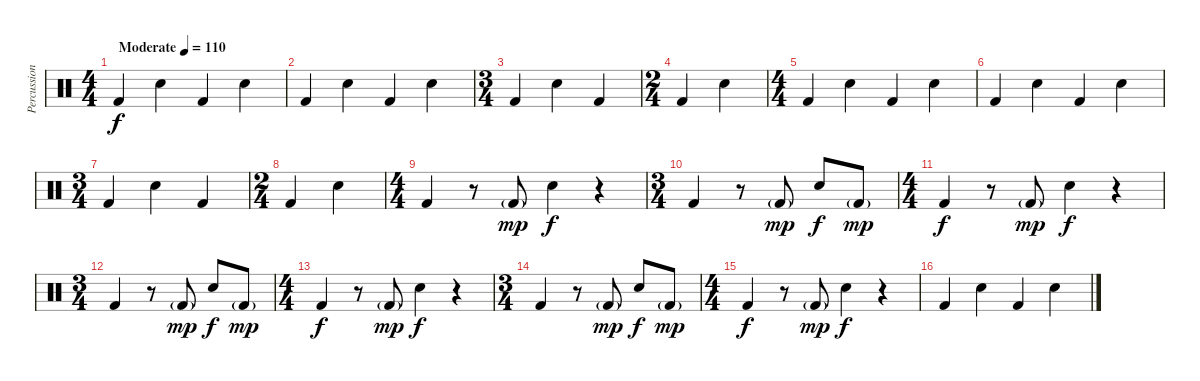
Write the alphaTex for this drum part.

\track ("Percussion" "Percussion") {instrument percussion}
\staff {score}
\articulation defaults
\ts (4 4)
\tempo (110 "Moderate")
\clef neutral
\ks c "Kick (hit) 2".4{dy f} "Snare (hit) 2".4 "Kick (hit) 2".4 "Snare (hit) 2".4
|
"Kick (hit) 2".4 "Snare (hit) 2".4 "Kick (hit) 2".4 "Snare (hit) 2".4 |
\ts (3 4)
"Kick (hit) 2".4 "Snare (hit) 2".4 "Kick (hit) 2".4 |
\ts (2 4)
"Kick (hit) 2".4 "Snare (hit) 2".4 |
\ts (4 4)
"Kick (hit) 2".4 "Snare (hit) 2".4 "Kick (hit) 2".4 "Snare (hit) 2".4 |
"Kick (hit) 2".4 "Snare (hit) 2".4 "Kick (hit) 2".4 "Snare (hit) 2".4 |
\ts (3 4)
"Kick (hit) 2".4 "Snare (hit) 2".4 "Kick (hit) 2".4 |
\ts (2 4)
"Kick (hit) 2".4 "Snare (hit) 2".4 |
\ts (4 4)
"Kick (hit) 2".4 r.8 "Kick (hit) 2"{g}.8{dy mp} "Snare (hit) 2".4{dy f} r.4 |
\ts (3 4)
"Kick (hit) 2".4 r.8 "Kick (hit) 2"{g}.8{dy mp} "Snare (hit) 2".8{dy f} "Kick (hit) 2"{g}.8{dy mp} |
\ts (4 4)
"Kick (hit) 2".4{dy f} r.8 "Kick (hit) 2"{g}.8{dy mp} "Snare (hit) 2".4{dy f} r.4 |
\ts (3 4)
"Kick (hit) 2".4 r.8 "Kick (hit) 2"{g}.8{dy mp} "Snare (hit) 2".8{dy f} "Kick (hit) 2"{g}.8{dy mp} |
\ts (4 4)
"Kick (hit) 2".4{dy f} r.8 "Kick (hit) 2"{g}.8{dy mp} "Snare (hit) 2".4{dy f} r.4 |
\ts (3 4)
"Kick (hit) 2".4 r.8 "Kick (hit) 2"{g}.8{dy mp} "Snare (hit) 2".8{dy f} "Kick (hit) 2"{g}.8{dy mp} |
\ts (4 4)
"Kick (hit) 2".4{dy f} r.8 "Kick (hit) 2"{g}.8{dy mp} "Snare (hit) 2".4{dy f} r.4 |
"Kick (hit) 2".4 "Snare (hit) 2".4 "Kick (hit) 2".4 "Snare (hit) 2".4
